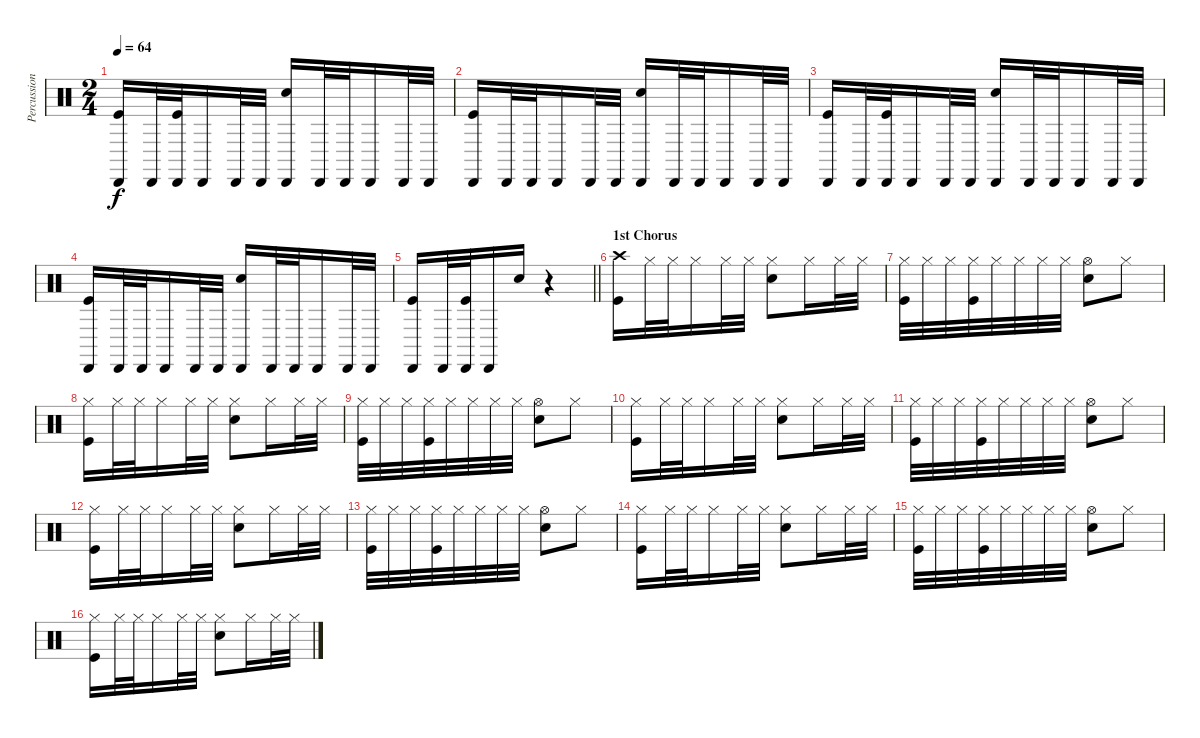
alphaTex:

\track ("Percussion" "Percussion") {instrument percussion}
\staff {score}
\articulation defaults
\ts (2 4)
\tempo 64
\clef neutral
\ks c
("Cabasa (hit)" "Kick (hit)").16{dy f} "Cabasa (hit)".32 ("Cabasa (hit)" "Kick (hit)").32 "Cabasa (hit)".16 "Cabasa (hit)".32 "Cabasa (hit)".32 ("Cabasa (hit)" "Electric Snare (hit)").16 "Cabasa (hit)".32 "Cabasa (hit)".32 "Cabasa (hit)".16 "Cabasa (hit)".32 "Cabasa (hit)".32 |
("Cabasa (hit)" "Kick (hit)").16 "Cabasa (hit)".32 "Cabasa (hit)".32 "Cabasa (hit)".16 "Cabasa (hit)".32 "Cabasa (hit)".32 ("Cabasa (hit)" "Electric Snare (hit)").16 "Cabasa (hit)".32 "Cabasa (hit)".32 "Cabasa (hit)".16 "Cabasa (hit)".32 "Cabasa (hit)".32 |
("Cabasa (hit)" "Kick (hit)").16 "Cabasa (hit)".32 ("Cabasa (hit)" "Kick (hit)").32 "Cabasa (hit)".16 "Cabasa (hit)".32 "Cabasa (hit)".32 ("Cabasa (hit)" "Electric Snare (hit)").16 "Cabasa (hit)".32 "Cabasa (hit)".32 "Cabasa (hit)".16 "Cabasa (hit)".32 "Cabasa (hit)".32 |
("Cabasa (hit)" "Kick (hit)").16 "Cabasa (hit)".32 "Cabasa (hit)".32 "Cabasa (hit)".16 "Cabasa (hit)".32 "Cabasa (hit)".32 ("Cabasa (hit)" "Electric Snare (hit)").16 "Cabasa (hit)".32 "Cabasa (hit)".32 "Cabasa (hit)".16 "Cabasa (hit)".32 "Cabasa (hit)".32 |
\barLineRight lightlight
("Cabasa (hit)" "Kick (hit)").16 "Cabasa (hit)".32 ("Cabasa (hit)" "Kick (hit)").32 "Cabasa (hit)".16 "Electric Snare (hit)".16 r.4 |
\section ("" "1st Chorus")
("Crash high (hit)" "Kick (hit)").16 "Hi-Hat (closed)".32 "Hi-Hat (closed)".32 "Hi-Hat (closed)".16 "Hi-Hat (closed)".32 "Hi-Hat (closed)".32 ("Hi-Hat (closed)" "Electric Snare (hit)").8 "Hi-Hat (closed)".16 "Hi-Hat (closed)".32 "Hi-Hat (closed)".32 |
("Hi-Hat (closed)" "Kick (hit)").32 "Hi-Hat (closed)".32 "Hi-Hat (closed)".32 ("Hi-Hat (closed)" "Kick (hit)").32 "Hi-Hat (closed)".32 "Hi-Hat (closed)".32 "Hi-Hat (closed)".32 "Hi-Hat (closed)".32 ("Hi-Hat (open)" "Electric Snare (hit)").8 "Hi-Hat (closed)".8 |
("Hi-Hat (closed)" "Kick (hit)").16 "Hi-Hat (closed)".32 "Hi-Hat (closed)".32 "Hi-Hat (closed)".16 "Hi-Hat (closed)".32 "Hi-Hat (closed)".32 ("Hi-Hat (closed)" "Electric Snare (hit)").8 "Hi-Hat (closed)".16 "Hi-Hat (closed)".32 "Hi-Hat (closed)".32 |
("Hi-Hat (closed)" "Kick (hit)").32 "Hi-Hat (closed)".32 "Hi-Hat (closed)".32 ("Hi-Hat (closed)" "Kick (hit)").32 "Hi-Hat (closed)".32 "Hi-Hat (closed)".32 "Hi-Hat (closed)".32 "Hi-Hat (closed)".32 ("Hi-Hat (open)" "Electric Snare (hit)").8 "Hi-Hat (closed)".8 |
("Hi-Hat (closed)" "Kick (hit)").16 "Hi-Hat (closed)".32 "Hi-Hat (closed)".32 "Hi-Hat (closed)".16 "Hi-Hat (closed)".32 "Hi-Hat (closed)".32 ("Hi-Hat (closed)" "Electric Snare (hit)").8 "Hi-Hat (closed)".16 "Hi-Hat (closed)".32 "Hi-Hat (closed)".32 |
("Hi-Hat (closed)" "Kick (hit)").32 "Hi-Hat (closed)".32 "Hi-Hat (closed)".32 ("Hi-Hat (closed)" "Kick (hit)").32 "Hi-Hat (closed)".32 "Hi-Hat (closed)".32 "Hi-Hat (closed)".32 "Hi-Hat (closed)".32 ("Hi-Hat (open)" "Electric Snare (hit)").8 "Hi-Hat (closed)".8 |
("Hi-Hat (closed)" "Kick (hit)").16 "Hi-Hat (closed)".32 "Hi-Hat (closed)".32 "Hi-Hat (closed)".16 "Hi-Hat (closed)".32 "Hi-Hat (closed)".32 ("Hi-Hat (closed)" "Electric Snare (hit)").8 "Hi-Hat (closed)".16 "Hi-Hat (closed)".32 "Hi-Hat (closed)".32 |
("Hi-Hat (closed)" "Kick (hit)").32 "Hi-Hat (closed)".32 "Hi-Hat (closed)".32 ("Hi-Hat (closed)" "Kick (hit)").32 "Hi-Hat (closed)".32 "Hi-Hat (closed)".32 "Hi-Hat (closed)".32 "Hi-Hat (closed)".32 ("Hi-Hat (open)" "Electric Snare (hit)").8 "Hi-Hat (closed)".8 |
("Hi-Hat (closed)" "Kick (hit)").16 "Hi-Hat (closed)".32 "Hi-Hat (closed)".32 "Hi-Hat (closed)".16 "Hi-Hat (closed)".32 "Hi-Hat (closed)".32 ("Hi-Hat (closed)" "Electric Snare (hit)").8 "Hi-Hat (closed)".16 "Hi-Hat (closed)".32 "Hi-Hat (closed)".32 |
("Hi-Hat (closed)" "Kick (hit)").32 "Hi-Hat (closed)".32 "Hi-Hat (closed)".32 ("Hi-Hat (closed)" "Kick (hit)").32 "Hi-Hat (closed)".32 "Hi-Hat (closed)".32 "Hi-Hat (closed)".32 "Hi-Hat (closed)".32 ("Hi-Hat (open)" "Electric Snare (hit)").8 "Hi-Hat (closed)".8 |
("Hi-Hat (closed)" "Kick (hit)").16 "Hi-Hat (closed)".32 "Hi-Hat (closed)".32 "Hi-Hat (closed)".16 "Hi-Hat (closed)".32 "Hi-Hat (closed)".32 ("Hi-Hat (closed)" "Electric Snare (hit)").8 "Hi-Hat (closed)".16 "Hi-Hat (closed)".32 "Hi-Hat (closed)".32
